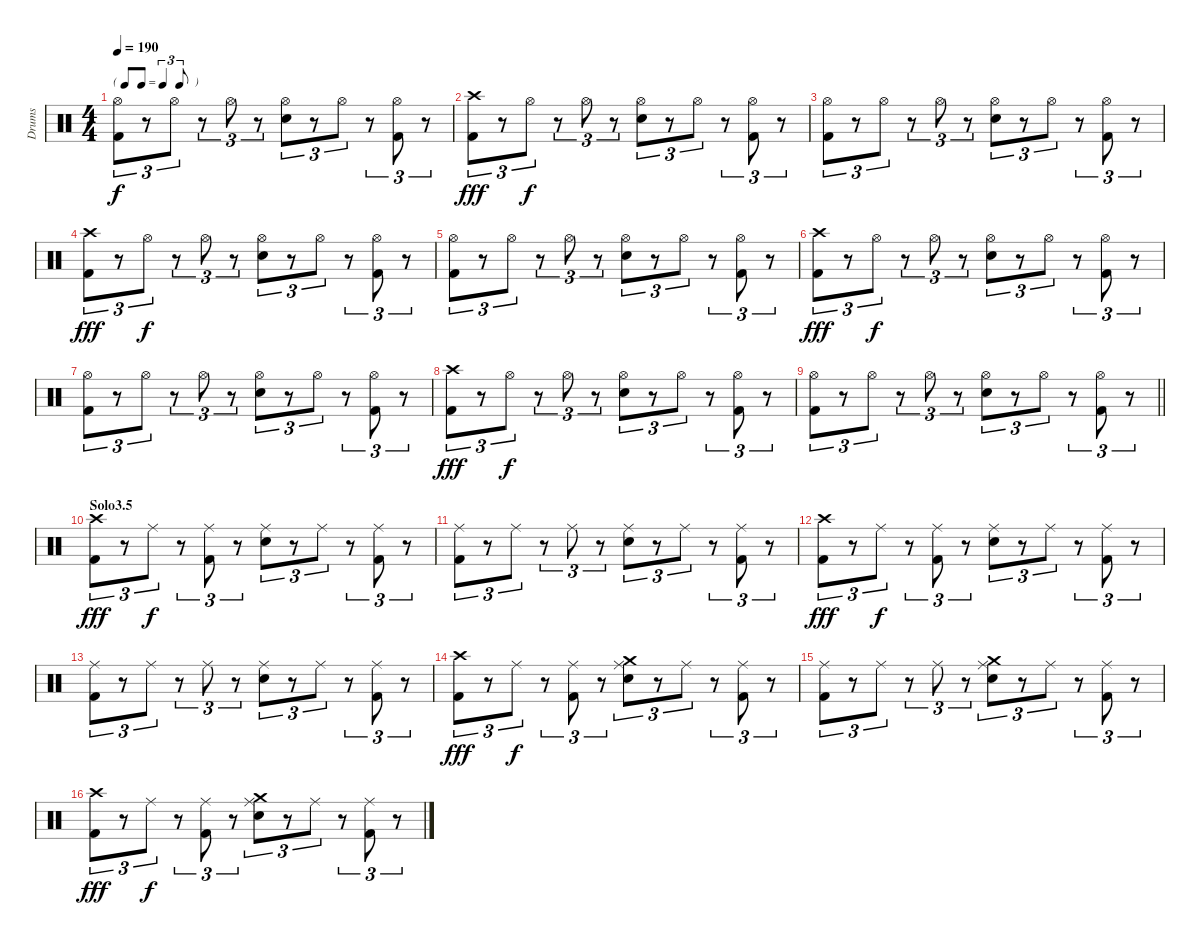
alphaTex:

\track ("Drums" "Drums") {instrument percussion}
\staff {score}
\articulation defaults
\ts (4 4)
\tf triplet8th
\tempo 190
\clef neutral
\ks c
("Hi-Hat (open)" "Kick (hit) 2").8{tu (3 2) dy f} r.8{tu (3 2)} "Hi-Hat (open)".8{tu (3 2)} r.8{tu (3 2)} "Hi-Hat (open)".8{tu (3 2)} r.8{tu (3 2)} ("Hi-Hat (open)" "Electric Snare (hit)").8{tu (3 2)} r.8{tu (3 2)} "Hi-Hat (open)".8{tu (3 2)} r.8{tu (3 2)} ("Hi-Hat (open)" "Kick (hit) 2").8{tu (3 2)} r.8{tu (3 2)} |
("Crash high (hit)" "Kick (hit) 2").8{tu (3 2) dy fff} r.8{tu (3 2)} "Hi-Hat (open)".8{tu (3 2) dy f} r.8{tu (3 2)} "Hi-Hat (open)".8{tu (3 2)} r.8{tu (3 2)} ("Hi-Hat (open)" "Electric Snare (hit)").8{tu (3 2)} r.8{tu (3 2)} "Hi-Hat (open)".8{tu (3 2)} r.8{tu (3 2)} ("Hi-Hat (open)" "Kick (hit) 2").8{tu (3 2)} r.8{tu (3 2)} |
("Hi-Hat (open)" "Kick (hit) 2").8{tu (3 2)} r.8{tu (3 2)} "Hi-Hat (open)".8{tu (3 2)} r.8{tu (3 2)} "Hi-Hat (open)".8{tu (3 2)} r.8{tu (3 2)} ("Hi-Hat (open)" "Electric Snare (hit)").8{tu (3 2)} r.8{tu (3 2)} "Hi-Hat (open)".8{tu (3 2)} r.8{tu (3 2)} ("Hi-Hat (open)" "Kick (hit) 2").8{tu (3 2)} r.8{tu (3 2)} |
("Crash high (hit)" "Kick (hit) 2").8{tu (3 2) dy fff} r.8{tu (3 2)} "Hi-Hat (open)".8{tu (3 2) dy f} r.8{tu (3 2)} "Hi-Hat (open)".8{tu (3 2)} r.8{tu (3 2)} ("Hi-Hat (open)" "Electric Snare (hit)").8{tu (3 2)} r.8{tu (3 2)} "Hi-Hat (open)".8{tu (3 2)} r.8{tu (3 2)} ("Hi-Hat (open)" "Kick (hit) 2").8{tu (3 2)} r.8{tu (3 2)} |
("Hi-Hat (open)" "Kick (hit) 2").8{tu (3 2)} r.8{tu (3 2)} "Hi-Hat (open)".8{tu (3 2)} r.8{tu (3 2)} "Hi-Hat (open)".8{tu (3 2)} r.8{tu (3 2)} ("Hi-Hat (open)" "Electric Snare (hit)").8{tu (3 2)} r.8{tu (3 2)} "Hi-Hat (open)".8{tu (3 2)} r.8{tu (3 2)} ("Hi-Hat (open)" "Kick (hit) 2").8{tu (3 2)} r.8{tu (3 2)} |
("Crash high (hit)" "Kick (hit) 2").8{tu (3 2) dy fff} r.8{tu (3 2)} "Hi-Hat (open)".8{tu (3 2) dy f} r.8{tu (3 2)} "Hi-Hat (open)".8{tu (3 2)} r.8{tu (3 2)} ("Hi-Hat (open)" "Electric Snare (hit)").8{tu (3 2)} r.8{tu (3 2)} "Hi-Hat (open)".8{tu (3 2)} r.8{tu (3 2)} ("Hi-Hat (open)" "Kick (hit) 2").8{tu (3 2)} r.8{tu (3 2)} |
("Hi-Hat (open)" "Kick (hit) 2").8{tu (3 2)} r.8{tu (3 2)} "Hi-Hat (open)".8{tu (3 2)} r.8{tu (3 2)} "Hi-Hat (open)".8{tu (3 2)} r.8{tu (3 2)} ("Hi-Hat (open)" "Electric Snare (hit)").8{tu (3 2)} r.8{tu (3 2)} "Hi-Hat (open)".8{tu (3 2)} r.8{tu (3 2)} ("Hi-Hat (open)" "Kick (hit) 2").8{tu (3 2)} r.8{tu (3 2)} |
("Crash high (hit)" "Kick (hit) 2").8{tu (3 2) dy fff} r.8{tu (3 2)} "Hi-Hat (open)".8{tu (3 2) dy f} r.8{tu (3 2)} "Hi-Hat (open)".8{tu (3 2)} r.8{tu (3 2)} ("Hi-Hat (open)" "Electric Snare (hit)").8{tu (3 2)} r.8{tu (3 2)} "Hi-Hat (open)".8{tu (3 2)} r.8{tu (3 2)} ("Hi-Hat (open)" "Kick (hit) 2").8{tu (3 2)} r.8{tu (3 2)} |
\barLineRight lightlight
("Hi-Hat (open)" "Kick (hit) 2").8{tu (3 2)} r.8{tu (3 2)} "Hi-Hat (open)".8{tu (3 2)} r.8{tu (3 2)} "Hi-Hat (open)".8{tu (3 2)} r.8{tu (3 2)} ("Hi-Hat (open)" "Electric Snare (hit)").8{tu (3 2)} r.8{tu (3 2)} "Hi-Hat (open)".8{tu (3 2)} r.8{tu (3 2)} ("Hi-Hat (open)" "Kick (hit) 2").8{tu (3 2)} r.8{tu (3 2)} |
\section ("" "Solo3.5")
("Crash high (hit)" "Kick (hit) 2").8{tu (3 2) dy fff} r.8{tu (3 2)} "Ride (middle)".8{tu (3 2) dy f} r.8{tu (3 2)} ("Ride (middle)" "Kick (hit) 2").8{tu (3 2)} r.8{tu (3 2)} ("Ride (middle)" "Electric Snare (hit)").8{tu (3 2)} r.8{tu (3 2)} "Ride (middle)".8{tu (3 2)} r.8{tu (3 2)} ("Ride (middle)" "Kick (hit) 2").8{tu (3 2)} r.8{tu (3 2)} |
("Ride (middle)" "Kick (hit) 2").8{tu (3 2)} r.8{tu (3 2)} "Ride (middle)".8{tu (3 2)} r.8{tu (3 2)} "Ride (middle)".8{tu (3 2)} r.8{tu (3 2)} ("Ride (middle)" "Electric Snare (hit)").8{tu (3 2)} r.8{tu (3 2)} "Ride (middle)".8{tu (3 2)} r.8{tu (3 2)} ("Ride (middle)" "Kick (hit) 2").8{tu (3 2)} r.8{tu (3 2)} |
("Crash high (hit)" "Kick (hit) 2").8{tu (3 2) dy fff} r.8{tu (3 2)} "Ride (middle)".8{tu (3 2) dy f} r.8{tu (3 2)} ("Ride (middle)" "Kick (hit) 2").8{tu (3 2)} r.8{tu (3 2)} ("Ride (middle)" "Electric Snare (hit)").8{tu (3 2)} r.8{tu (3 2)} "Ride (middle)".8{tu (3 2)} r.8{tu (3 2)} ("Ride (middle)" "Kick (hit) 2").8{tu (3 2)} r.8{tu (3 2)} |
("Ride (middle)" "Kick (hit) 2").8{tu (3 2)} r.8{tu (3 2)} "Ride (middle)".8{tu (3 2)} r.8{tu (3 2)} "Ride (middle)".8{tu (3 2)} r.8{tu (3 2)} ("Ride (middle)" "Electric Snare (hit)").8{tu (3 2)} r.8{tu (3 2)} "Ride (middle)".8{tu (3 2)} r.8{tu (3 2)} ("Ride (middle)" "Kick (hit) 2").8{tu (3 2)} r.8{tu (3 2)} |
("Crash high (hit)" "Kick (hit) 2").8{tu (3 2) dy fff} r.8{tu (3 2)} "Ride (middle)".8{tu (3 2) dy f} r.8{tu (3 2)} ("Ride (middle)" "Kick (hit) 2").8{tu (3 2)} r.8{tu (3 2)} ("Crash medium (hit)" "Ride (middle)" "Electric Snare (hit)").8{tu (3 2)} r.8{tu (3 2)} "Ride (middle)".8{tu (3 2)} r.8{tu (3 2)} ("Ride (middle)" "Kick (hit) 2").8{tu (3 2)} r.8{tu (3 2)} |
("Ride (middle)" "Kick (hit) 2").8{tu (3 2)} r.8{tu (3 2)} "Ride (middle)".8{tu (3 2)} r.8{tu (3 2)} "Ride (middle)".8{tu (3 2)} r.8{tu (3 2)} ("Crash medium (hit)" "Ride (middle)" "Electric Snare (hit)").8{tu (3 2)} r.8{tu (3 2)} "Ride (middle)".8{tu (3 2)} r.8{tu (3 2)} ("Ride (middle)" "Kick (hit) 2").8{tu (3 2)} r.8{tu (3 2)} |
("Crash high (hit)" "Kick (hit) 2").8{tu (3 2) dy fff} r.8{tu (3 2)} "Ride (middle)".8{tu (3 2) dy f} r.8{tu (3 2)} ("Ride (middle)" "Kick (hit) 2").8{tu (3 2)} r.8{tu (3 2)} ("Crash medium (hit)" "Ride (middle)" "Electric Snare (hit)").8{tu (3 2)} r.8{tu (3 2)} "Ride (middle)".8{tu (3 2)} r.8{tu (3 2)} ("Ride (middle)" "Kick (hit) 2").8{tu (3 2)} r.8{tu (3 2)}
